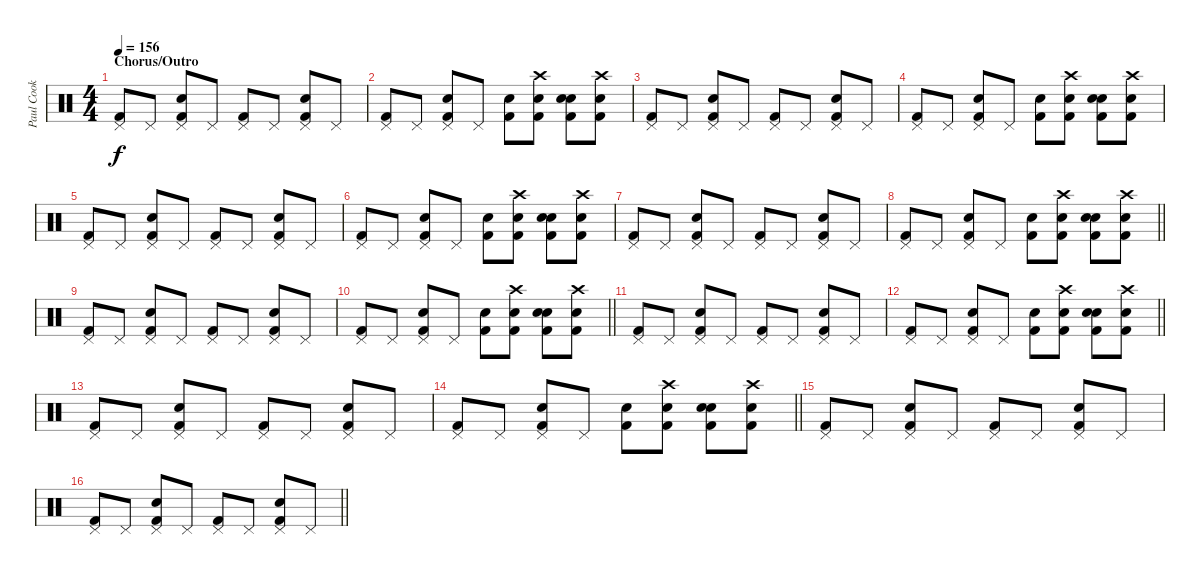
\track ("Paul Cook" "Paul Cook") {instrument percussion}
\staff {score}
\articulation defaults
\ts (4 4)
\section ("" "Chorus/Outro")
\tempo 156
\clef neutral
\ks c
("Pedal Hi-Hat (hit)" "Kick (hit) 2").8{dy f} "Pedal Hi-Hat (hit)".8 ("Pedal Hi-Hat (hit)" "Kick (hit) 2" "Snare (hit) 2").8 "Pedal Hi-Hat (hit)".8 ("Pedal Hi-Hat (hit)" "Kick (hit) 2").8 "Pedal Hi-Hat (hit)".8 ("Pedal Hi-Hat (hit)" "Kick (hit) 2" "Snare (hit) 2").8 "Pedal Hi-Hat (hit)".8 |
("Pedal Hi-Hat (hit)" "Kick (hit) 2").8 "Pedal Hi-Hat (hit)".8 ("Pedal Hi-Hat (hit)" "Snare (hit) 2" "Kick (hit) 2").8 "Pedal Hi-Hat (hit)".8 ("Kick (hit) 2" "Snare (hit) 2").8 ("Kick (hit) 2" "Crash high (hit)" "Snare (hit) 2").8 ("Kick (hit) 2" "Snare (hit) 2" "Snare (hit) 2").8 ("Kick (hit) 2" "Crash high (hit)" "Snare (hit) 2").8 |
("Pedal Hi-Hat (hit)" "Kick (hit) 2").8 "Pedal Hi-Hat (hit)".8 ("Pedal Hi-Hat (hit)" "Kick (hit) 2" "Snare (hit) 2").8 "Pedal Hi-Hat (hit)".8 ("Pedal Hi-Hat (hit)" "Kick (hit) 2").8 "Pedal Hi-Hat (hit)".8 ("Pedal Hi-Hat (hit)" "Kick (hit) 2" "Snare (hit) 2").8 "Pedal Hi-Hat (hit)".8 |
("Pedal Hi-Hat (hit)" "Kick (hit) 2").8 "Pedal Hi-Hat (hit)".8 ("Pedal Hi-Hat (hit)" "Snare (hit) 2" "Kick (hit) 2").8 "Pedal Hi-Hat (hit)".8 ("Kick (hit) 2" "Snare (hit) 2").8 ("Kick (hit) 2" "Crash high (hit)" "Snare (hit) 2").8 ("Kick (hit) 2" "Snare (hit) 2" "Snare (hit) 2").8 ("Kick (hit) 2" "Crash high (hit)" "Snare (hit) 2").8 |
("Pedal Hi-Hat (hit)" "Kick (hit) 2").8 "Pedal Hi-Hat (hit)".8 ("Pedal Hi-Hat (hit)" "Kick (hit) 2" "Snare (hit) 2").8 "Pedal Hi-Hat (hit)".8 ("Pedal Hi-Hat (hit)" "Kick (hit) 2").8 "Pedal Hi-Hat (hit)".8 ("Pedal Hi-Hat (hit)" "Kick (hit) 2" "Snare (hit) 2").8 "Pedal Hi-Hat (hit)".8 |
("Pedal Hi-Hat (hit)" "Kick (hit) 2").8 "Pedal Hi-Hat (hit)".8 ("Pedal Hi-Hat (hit)" "Snare (hit) 2" "Kick (hit) 2").8 "Pedal Hi-Hat (hit)".8 ("Kick (hit) 2" "Snare (hit) 2").8 ("Kick (hit) 2" "Crash high (hit)" "Snare (hit) 2").8 ("Kick (hit) 2" "Snare (hit) 2" "Snare (hit) 2").8 ("Kick (hit) 2" "Crash high (hit)" "Snare (hit) 2").8 |
("Pedal Hi-Hat (hit)" "Kick (hit) 2").8 "Pedal Hi-Hat (hit)".8 ("Pedal Hi-Hat (hit)" "Kick (hit) 2" "Snare (hit) 2").8 "Pedal Hi-Hat (hit)".8 ("Pedal Hi-Hat (hit)" "Kick (hit) 2").8 "Pedal Hi-Hat (hit)".8 ("Pedal Hi-Hat (hit)" "Kick (hit) 2" "Snare (hit) 2").8 "Pedal Hi-Hat (hit)".8 |
\barLineRight lightlight
("Pedal Hi-Hat (hit)" "Kick (hit) 2").8 "Pedal Hi-Hat (hit)".8 ("Pedal Hi-Hat (hit)" "Snare (hit) 2" "Kick (hit) 2").8 "Pedal Hi-Hat (hit)".8 ("Kick (hit) 2" "Snare (hit) 2").8 ("Kick (hit) 2" "Crash high (hit)" "Snare (hit) 2").8 ("Kick (hit) 2" "Snare (hit) 2" "Snare (hit) 2").8 ("Kick (hit) 2" "Crash high (hit)" "Snare (hit) 2").8 |
("Pedal Hi-Hat (hit)" "Kick (hit) 2").8 "Pedal Hi-Hat (hit)".8 ("Pedal Hi-Hat (hit)" "Kick (hit) 2" "Snare (hit) 2").8 "Pedal Hi-Hat (hit)".8 ("Pedal Hi-Hat (hit)" "Kick (hit) 2").8 "Pedal Hi-Hat (hit)".8 ("Pedal Hi-Hat (hit)" "Kick (hit) 2" "Snare (hit) 2").8 "Pedal Hi-Hat (hit)".8 |
\barLineRight lightlight
("Pedal Hi-Hat (hit)" "Kick (hit) 2").8 "Pedal Hi-Hat (hit)".8 ("Pedal Hi-Hat (hit)" "Snare (hit) 2" "Kick (hit) 2").8 "Pedal Hi-Hat (hit)".8 ("Kick (hit) 2" "Snare (hit) 2").8 ("Kick (hit) 2" "Crash high (hit)" "Snare (hit) 2").8 ("Kick (hit) 2" "Snare (hit) 2" "Snare (hit) 2").8 ("Kick (hit) 2" "Crash high (hit)" "Snare (hit) 2").8 |
("Pedal Hi-Hat (hit)" "Kick (hit) 2").8 "Pedal Hi-Hat (hit)".8 ("Pedal Hi-Hat (hit)" "Kick (hit) 2" "Snare (hit) 2").8 "Pedal Hi-Hat (hit)".8 ("Pedal Hi-Hat (hit)" "Kick (hit) 2").8 "Pedal Hi-Hat (hit)".8 ("Pedal Hi-Hat (hit)" "Kick (hit) 2" "Snare (hit) 2").8 "Pedal Hi-Hat (hit)".8 |
\barLineRight lightlight
("Pedal Hi-Hat (hit)" "Kick (hit) 2").8 "Pedal Hi-Hat (hit)".8 ("Pedal Hi-Hat (hit)" "Snare (hit) 2" "Kick (hit) 2").8 "Pedal Hi-Hat (hit)".8 ("Kick (hit) 2" "Snare (hit) 2").8 ("Kick (hit) 2" "Crash high (hit)" "Snare (hit) 2").8 ("Kick (hit) 2" "Snare (hit) 2" "Snare (hit) 2").8 ("Kick (hit) 2" "Crash high (hit)" "Snare (hit) 2").8 |
("Pedal Hi-Hat (hit)" "Kick (hit) 2").8 "Pedal Hi-Hat (hit)".8 ("Pedal Hi-Hat (hit)" "Kick (hit) 2" "Snare (hit) 2").8 "Pedal Hi-Hat (hit)".8 ("Pedal Hi-Hat (hit)" "Kick (hit) 2").8 "Pedal Hi-Hat (hit)".8 ("Pedal Hi-Hat (hit)" "Kick (hit) 2" "Snare (hit) 2").8 "Pedal Hi-Hat (hit)".8 |
\barLineRight lightlight
("Pedal Hi-Hat (hit)" "Kick (hit) 2").8 "Pedal Hi-Hat (hit)".8 ("Pedal Hi-Hat (hit)" "Snare (hit) 2" "Kick (hit) 2").8 "Pedal Hi-Hat (hit)".8 ("Kick (hit) 2" "Snare (hit) 2").8 ("Kick (hit) 2" "Crash high (hit)" "Snare (hit) 2").8 ("Kick (hit) 2" "Snare (hit) 2" "Snare (hit) 2").8 ("Kick (hit) 2" "Crash high (hit)" "Snare (hit) 2").8 |
("Pedal Hi-Hat (hit)" "Kick (hit) 2").8 "Pedal Hi-Hat (hit)".8 ("Pedal Hi-Hat (hit)" "Kick (hit) 2" "Snare (hit) 2").8 "Pedal Hi-Hat (hit)".8 ("Pedal Hi-Hat (hit)" "Kick (hit) 2").8 "Pedal Hi-Hat (hit)".8 ("Pedal Hi-Hat (hit)" "Kick (hit) 2" "Snare (hit) 2").8 "Pedal Hi-Hat (hit)".8 |
\barLineRight lightlight
("Pedal Hi-Hat (hit)" "Kick (hit) 2").8 "Pedal Hi-Hat (hit)".8 ("Pedal Hi-Hat (hit)" "Kick (hit) 2" "Snare (hit) 2").8 "Pedal Hi-Hat (hit)".8 ("Pedal Hi-Hat (hit)" "Kick (hit) 2").8 "Pedal Hi-Hat (hit)".8 ("Pedal Hi-Hat (hit)" "Kick (hit) 2" "Snare (hit) 2").8 "Pedal Hi-Hat (hit)".8
